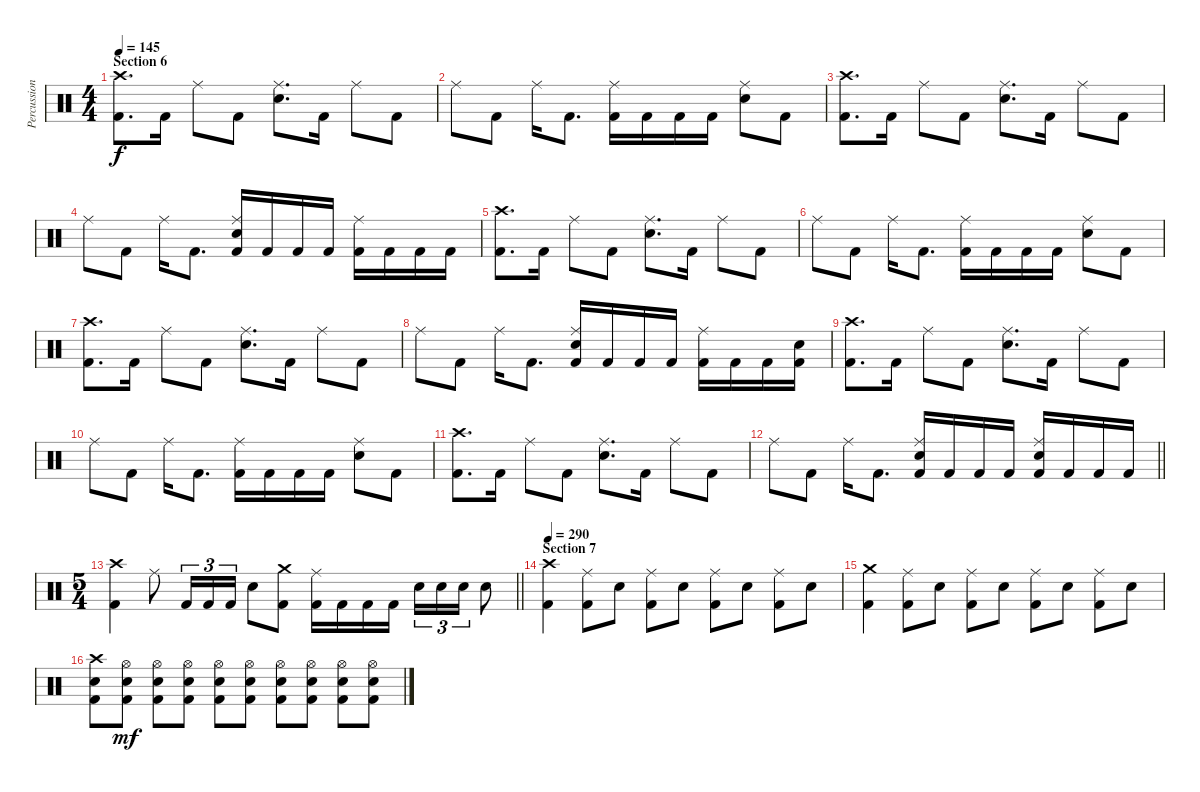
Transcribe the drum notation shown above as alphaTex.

\track ("Percussion" "Percussion") {instrument percussion}
\staff {score}
\articulation defaults
\ts (4 4)
\section ("" "Section 6")
\tempo 145
\clef neutral
\ks c
("Crash high (hit)" "Kick (hit) 2").8{d dy f} "Kick (hit) 2".16 "Ride (middle)".8 "Kick (hit) 2".8 ("Ride (middle)" "Electric Snare (hit)").8{d} "Kick (hit) 2".16 "Ride (middle)".8 "Kick (hit) 2".8 |
"Ride (middle)".8 "Kick (hit) 2".8 "Ride (middle)".16 "Kick (hit) 2".8{d} ("Ride (middle)" "Kick (hit) 2").16 "Kick (hit) 2".16 "Kick (hit) 2".16 "Kick (hit) 2".16 ("Ride (middle)" "Electric Snare (hit)").8 "Kick (hit) 2".8 |
("Crash high (hit)" "Kick (hit) 2").8{d} "Kick (hit) 2".16 "Ride (middle)".8 "Kick (hit) 2".8 ("Ride (middle)" "Electric Snare (hit)").8{d} "Kick (hit) 2".16 "Ride (middle)".8 "Kick (hit) 2".8 |
"Ride (middle)".8 "Kick (hit) 2".8 "Ride (middle)".16 "Kick (hit) 2".8{d} ("Ride (middle)" "Electric Snare (hit)" "Kick (hit) 2").16 "Kick (hit) 2".16 "Kick (hit) 2".16 "Kick (hit) 2".16 ("Ride (middle)" "Kick (hit) 2").16 "Kick (hit) 2".16 "Kick (hit) 2".16 "Kick (hit) 2".16 |
("Crash high (hit)" "Kick (hit) 2").8{d} "Kick (hit) 2".16 "Ride (middle)".8 "Kick (hit) 2".8 ("Ride (middle)" "Electric Snare (hit)").8{d} "Kick (hit) 2".16 "Ride (middle)".8 "Kick (hit) 2".8 |
"Ride (middle)".8 "Kick (hit) 2".8 "Ride (middle)".16 "Kick (hit) 2".8{d} ("Ride (middle)" "Kick (hit) 2").16 "Kick (hit) 2".16 "Kick (hit) 2".16 "Kick (hit) 2".16 ("Ride (middle)" "Electric Snare (hit)").8 "Kick (hit) 2".8 |
("Crash high (hit)" "Kick (hit) 2").8{d} "Kick (hit) 2".16 "Ride (middle)".8 "Kick (hit) 2".8 ("Ride (middle)" "Electric Snare (hit)").8{d} "Kick (hit) 2".16 "Ride (middle)".8 "Kick (hit) 2".8 |
"Ride (middle)".8 "Kick (hit) 2".8 "Ride (middle)".16 "Kick (hit) 2".8{d} ("Ride (middle)" "Electric Snare (hit)" "Kick (hit) 2").16 "Kick (hit) 2".16 "Kick (hit) 2".16 "Kick (hit) 2".16 ("Ride (middle)" "Kick (hit) 2").16 "Kick (hit) 2".16 "Kick (hit) 2".16 ("Electric Snare (hit)" "Kick (hit) 2").16 |
("Crash high (hit)" "Kick (hit) 2").8{d} "Kick (hit) 2".16 "Ride (middle)".8 "Kick (hit) 2".8 ("Ride (middle)" "Electric Snare (hit)").8{d} "Kick (hit) 2".16 "Ride (middle)".8 "Kick (hit) 2".8 |
"Ride (middle)".8 "Kick (hit) 2".8 "Ride (middle)".16 "Kick (hit) 2".8{d} ("Ride (middle)" "Kick (hit) 2").16 "Kick (hit) 2".16 "Kick (hit) 2".16 "Kick (hit) 2".16 ("Ride (middle)" "Electric Snare (hit)").8 "Kick (hit) 2".8 |
("Crash high (hit)" "Kick (hit) 2").8{d} "Kick (hit) 2".16 "Ride (middle)".8 "Kick (hit) 2".8 ("Ride (middle)" "Electric Snare (hit)").8{d} "Kick (hit) 2".16 "Ride (middle)".8 "Kick (hit) 2".8 |
\barLineRight lightlight "Ride (middle)".8 "Kick (hit) 2".8 "Ride (middle)".16 "Kick (hit) 2".8{d}
("Ride (middle)" "Electric Snare (hit)" "Kick (hit) 2").16 "Kick (hit) 2".16 "Kick (hit) 2".16 "Kick (hit) 2".16 ("Ride (middle)" "Electric Snare (hit)" "Kick (hit) 2").16 "Kick (hit) 2".16 "Kick (hit) 2".16 "Kick (hit) 2".16 |
\ts (5 4)
\section ("" "")
\barLineRight lightlight
("Crash high (hit)" "Kick (hit) 2").4 "Ride (middle)".8 "Kick (hit) 2".16{tu (3 2)} "Kick (hit) 2".16{tu (3 2)} "Kick (hit) 2".16{tu (3 2)} "Electric Snare (hit)".8 ("Crash medium (hit)" "Kick (hit) 2").8 ("Ride (middle)" "Kick (hit) 2").16 "Kick (hit) 2".16 "Kick (hit) 2".16 "Kick (hit) 2".16 "Electric Snare (hit)".16{tu (3 2)} "Electric Snare (hit)".16{tu (3 2)} "Electric Snare (hit)".16{tu (3 2)} "Electric Snare (hit)".8 |
\section ("" "Section 7")
\tempo 290
("Crash high (hit)" "Kick (hit) 2").4 ("Ride (middle)" "Kick (hit) 2").8 "Electric Snare (hit)".8 ("Ride (middle)" "Kick (hit) 2").8 "Electric Snare (hit)".8 ("Ride (middle)" "Kick (hit) 2").8 "Electric Snare (hit)".8 ("Ride (middle)" "Kick (hit) 2").8 "Electric Snare (hit)".8 |
("Crash medium (hit)" "Kick (hit) 2").4 ("Ride (middle)" "Kick (hit) 2").8 "Electric Snare (hit)".8 ("Ride (middle)" "Kick (hit) 2").8 "Electric Snare (hit)".8 ("Ride (middle)" "Kick (hit) 2").8 "Electric Snare (hit)".8 ("Ride (middle)" "Kick (hit) 2").8 "Electric Snare (hit)".8 |
("Crash high (hit)" "Electric Snare (hit)" "Kick (hit) 2").8 ("Hi-Hat (open)" "Electric Snare (hit)" "Kick (hit) 2").8{dy mf} ("Hi-Hat (open)" "Electric Snare (hit)" "Kick (hit) 2").8 ("Hi-Hat (open)" "Electric Snare (hit)" "Kick (hit) 2").8 ("Hi-Hat (open)" "Electric Snare (hit)" "Kick (hit) 2").8 ("Hi-Hat (open)" "Electric Snare (hit)" "Kick (hit) 2").8 ("Hi-Hat (open)" "Electric Snare (hit)" "Kick (hit) 2").8 ("Hi-Hat (open)" "Electric Snare (hit)" "Kick (hit) 2").8 ("Hi-Hat (open)" "Electric Snare (hit)" "Kick (hit) 2").8 ("Hi-Hat (open)" "Electric Snare (hit)" "Kick (hit) 2").8
